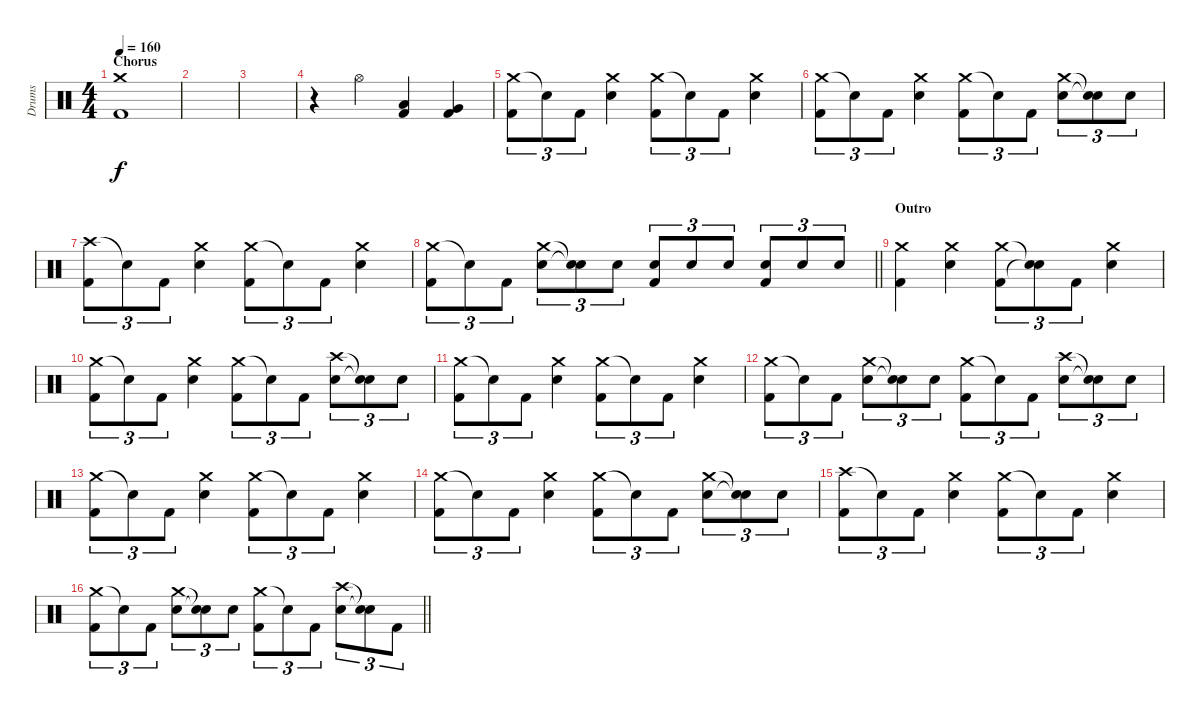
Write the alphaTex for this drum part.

\track ("Drums" "Drums") {instrument percussion}
\staff {score}
\articulation defaults
\ts (4 4)
\section ("" "Chorus")
\tempo 160
\clef neutral
\ks c
("Crash medium (hit)" "Kick (hit) 2").1{dy f} |
|
|
r.4 "Hi-Hat (open)".4 ("Low Tom (hit)" "Kick (hit) 2").4 ("Very Low Tom (hit)" "Kick (hit) 2").4 |
("Crash medium (hit)" "Kick (hit) 2").8{tu (3 2)} "Snare (hit)"{t}.8{tu (3 2)} "Kick (hit) 2".8{tu (3 2)} ("Crash medium (hit)" "Electric Snare (hit)").4 ("Crash medium (hit)" "Kick (hit) 2").8{tu (3 2)} "Snare (hit)"{t}.8{tu (3 2)} "Kick (hit) 2".8{tu (3 2)} ("Crash medium (hit)" "Electric Snare (hit)").4 |
("Crash medium (hit)" "Kick (hit) 2").8{tu (3 2)} "Snare (hit)"{t}.8{tu (3 2)} "Kick (hit) 2".8{tu (3 2)} ("Crash medium (hit)" "Electric Snare (hit)").4 ("Crash medium (hit)" "Kick (hit) 2").8{tu (3 2)} "Snare (hit)"{t}.8{tu (3 2)} "Kick (hit) 2".8{tu (3 2)} ("Crash medium (hit)" "Electric Snare (hit)").8{tu (3 2)} ("Snare (hit)"{t} "Snare (hit)"{t}).8{tu (3 2)} "Electric Snare (hit)".8{tu (3 2)} |
("Crash high (hit)" "Kick (hit) 2").8{tu (3 2)} "Snare (hit)"{t}.8{tu (3 2)} "Kick (hit) 2".8{tu (3 2)} ("Crash medium (hit)" "Electric Snare (hit)").4 ("Crash medium (hit)" "Kick (hit) 2").8{tu (3 2)} "Snare (hit)"{t}.8{tu (3 2)} "Kick (hit) 2".8{tu (3 2)} ("Crash medium (hit)" "Electric Snare (hit)").4 |
\barLineRight lightlight
("Crash medium (hit)" "Kick (hit) 2").8{tu (3 2)} "Snare (hit)"{t}.8{tu (3 2)} "Kick (hit) 2".8{tu (3 2)} ("Crash medium (hit)" "Electric Snare (hit)").8{tu (3 2)} ("Snare (hit)"{t} "Snare (hit)"{t}).8{tu (3 2)} "Electric Snare (hit)".8{tu (3 2)} ("Electric Snare (hit)" "Kick (hit) 2").8{tu (3 2)} "Electric Snare (hit)".8{tu (3 2)} "Electric Snare (hit)".8{tu (3 2)} ("Electric Snare (hit)" "Kick (hit) 2").8{tu (3 2)} "Electric Snare (hit)".8{tu (3 2)} "Electric Snare (hit)".8{tu (3 2)} |
\section ("" "Outro")
("Crash medium (hit)" "Kick (hit) 2").4 ("Crash medium (hit)" "Electric Snare (hit)").4 ("Crash medium (hit)" "Kick (hit) 2").8{tu (3 2)} ("Snare (hit)"{t} "Snare (hit)"{t}).8{tu (3 2)} "Kick (hit) 2".8{tu (3 2)} ("Crash medium (hit)" "Electric Snare (hit)").4 |
("Crash medium (hit)" "Kick (hit) 2").8{tu (3 2)} "Snare (hit)"{t}.8{tu (3 2)} "Kick (hit) 2".8{tu (3 2)} ("Crash medium (hit)" "Electric Snare (hit)").4 ("Crash medium (hit)" "Kick (hit) 2").8{tu (3 2)} "Snare (hit)"{t}.8{tu (3 2)} "Kick (hit) 2".8{tu (3 2)} ("Crash high (hit)" "Electric Snare (hit)").8{tu (3 2)} ("Snare (hit)"{t} "Snare (hit)"{t}).8{tu (3 2)} "Electric Snare (hit)".8{tu (3 2)} |
("Crash medium (hit)" "Kick (hit) 2").8{tu (3 2)} "Snare (hit)"{t}.8{tu (3 2)} "Kick (hit) 2".8{tu (3 2)} ("Crash medium (hit)" "Electric Snare (hit)").4 ("Crash medium (hit)" "Kick (hit) 2").8{tu (3 2)} "Snare (hit)"{t}.8{tu (3 2)} "Kick (hit) 2".8{tu (3 2)} ("Crash medium (hit)" "Electric Snare (hit)").4 |
("Crash medium (hit)" "Kick (hit) 2").8{tu (3 2)} "Snare (hit)"{t}.8{tu (3 2)} "Kick (hit) 2".8{tu (3 2)} ("Crash medium (hit)" "Electric Snare (hit)").8{tu (3 2)} ("Snare (hit)"{t} "Snare (hit)"{t}).8{tu (3 2)} "Electric Snare (hit)".8{tu (3 2)} ("Crash medium (hit)" "Kick (hit) 2").8{tu (3 2)} "Snare (hit)"{t}.8{tu (3 2)} "Kick (hit) 2".8{tu (3 2)} ("Crash high (hit)" "Electric Snare (hit)").8{tu (3 2)} ("Snare (hit)"{t} "Snare (hit)"{t}).8{tu (3 2)} "Electric Snare (hit)".8{tu (3 2)} |
("Crash medium (hit)" "Kick (hit) 2").8{tu (3 2)} "Snare (hit)"{t}.8{tu (3 2)} "Kick (hit) 2".8{tu (3 2)} ("Crash medium (hit)" "Electric Snare (hit)").4 ("Crash medium (hit)" "Kick (hit) 2").8{tu (3 2)} "Snare (hit)"{t}.8{tu (3 2)} "Kick (hit) 2".8{tu (3 2)} ("Crash medium (hit)" "Electric Snare (hit)").4 |
("Crash medium (hit)" "Kick (hit) 2").8{tu (3 2)} "Snare (hit)"{t}.8{tu (3 2)} "Kick (hit) 2".8{tu (3 2)} ("Crash medium (hit)" "Electric Snare (hit)").4 ("Crash medium (hit)" "Kick (hit) 2").8{tu (3 2)} "Snare (hit)"{t}.8{tu (3 2)} "Kick (hit) 2".8{tu (3 2)} ("Crash medium (hit)" "Electric Snare (hit)").8{tu (3 2)} ("Snare (hit)"{t} "Snare (hit)"{t}).8{tu (3 2)} "Electric Snare (hit)".8{tu (3 2)} |
("Crash high (hit)" "Kick (hit) 2").8{tu (3 2)} "Snare (hit)"{t}.8{tu (3 2)} "Kick (hit) 2".8{tu (3 2)} ("Crash medium (hit)" "Electric Snare (hit)").4 ("Crash medium (hit)" "Kick (hit) 2").8{tu (3 2)} "Snare (hit)"{t}.8{tu (3 2)} "Kick (hit) 2".8{tu (3 2)} ("Crash medium (hit)" "Electric Snare (hit)").4 |
\barLineRight lightlight
("Crash medium (hit)" "Kick (hit) 2").8{tu (3 2)} "Snare (hit)"{t}.8{tu (3 2)} "Kick (hit) 2".8{tu (3 2)} ("Crash medium (hit)" "Electric Snare (hit)").8{tu (3 2)} ("Snare (hit)"{t} "Snare (hit)"{t}).8{tu (3 2)} "Electric Snare (hit)".8{tu (3 2)} ("Crash medium (hit)" "Kick (hit) 2").8{tu (3 2)} "Snare (hit)"{t}.8{tu (3 2)} "Kick (hit) 2".8{tu (3 2)} ("Crash high (hit)" "Electric Snare (hit)").8{tu (3 2)} ("Snare (hit)"{t} "Snare (hit)"{t}).8{tu (3 2)} "Kick (hit) 2".8{tu (3 2)}
